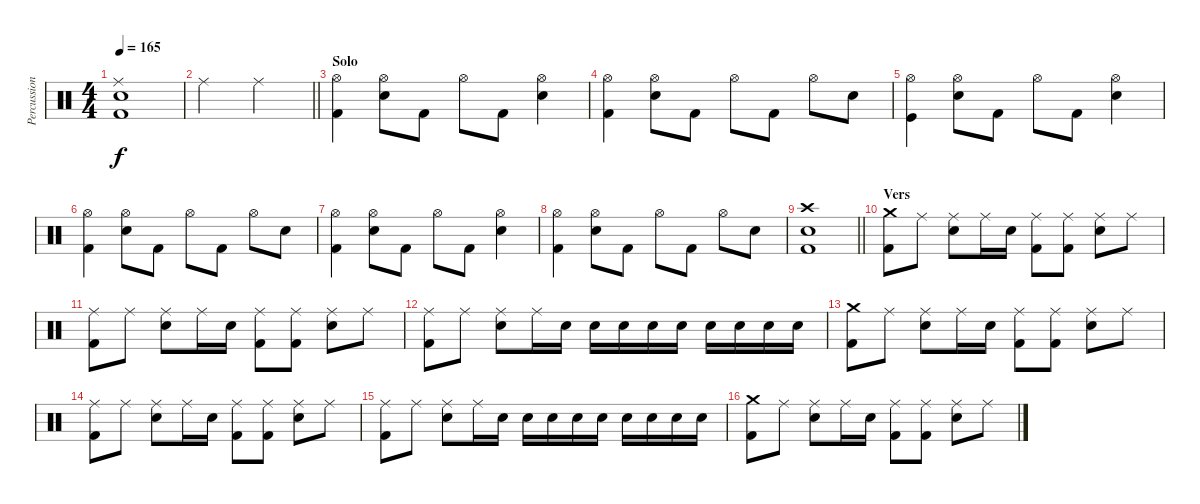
\track ("Percussions" "Percussion") {instrument percussion}
\staff {score}
\articulation defaults
\ts (4 4)
\tempo 165
\clef neutral
\ks c
("Ride (middle)" "Snare (hit) 2" "Kick (hit) 2").1{dy f} |
\barLineRight lightlight "Ride (middle)".2 "Ride (middle)".2
|
\section ("" "Solo")
("Hi-Hat (open)" "Kick (hit) 2").4 ("Hi-Hat (open)" "Snare (hit) 2").8 "Kick (hit) 2".8 "Hi-Hat (open)".8 "Kick (hit) 2".8 ("Hi-Hat (open)" "Snare (hit) 2").4 |
("Hi-Hat (open)" "Kick (hit) 2").4 ("Hi-Hat (open)" "Snare (hit) 2").8 "Kick (hit) 2".8 "Hi-Hat (open)".8 "Kick (hit) 2".8 "Hi-Hat (open)".8 "Snare (hit) 2".8 |
("Hi-Hat (open)" "Kick (hit)").4 ("Hi-Hat (open)" "Snare (hit) 2").8 "Kick (hit) 2".8 "Hi-Hat (open)".8 "Kick (hit) 2".8 ("Hi-Hat (open)" "Snare (hit) 2").4 |
("Hi-Hat (open)" "Kick (hit) 2").4 ("Hi-Hat (open)" "Snare (hit) 2").8 "Kick (hit) 2".8 "Hi-Hat (open)".8 "Kick (hit) 2".8 "Hi-Hat (open)".8 "Snare (hit) 2".8 |
("Hi-Hat (open)" "Kick (hit) 2").4 ("Hi-Hat (open)" "Snare (hit) 2").8 "Kick (hit) 2".8 "Hi-Hat (open)".8 "Kick (hit) 2".8 ("Hi-Hat (open)" "Snare (hit) 2").4 |
("Hi-Hat (open)" "Kick (hit) 2").4 ("Hi-Hat (open)" "Snare (hit) 2").8 "Kick (hit) 2".8 "Hi-Hat (open)".8 "Kick (hit) 2".8 "Hi-Hat (open)".8 "Snare (hit) 2".8 |
\barLineRight lightlight
("Crash high (hit)" "Snare (hit) 2" "Kick (hit) 2").1 |
\section ("" "Vers")
("Crash medium (hit)" "Kick (hit) 2").8 "Ride (middle)".8 ("Ride (middle)" "Snare (hit) 2").8 "Ride (middle)".16 "Snare (hit) 2".16 ("Ride (middle)" "Kick (hit) 2").8 ("Ride (middle)" "Kick (hit) 2").8 ("Ride (middle)" "Snare (hit) 2").8 "Ride (middle)".8 |
("Ride (middle)" "Kick (hit) 2").8 "Ride (middle)".8 ("Ride (middle)" "Snare (hit) 2").8 "Ride (middle)".16 "Snare (hit) 2".16 ("Ride (middle)" "Kick (hit) 2").8 ("Ride (middle)" "Kick (hit) 2").8 ("Ride (middle)" "Snare (hit) 2").8 "Ride (middle)".8 |
("Ride (middle)" "Kick (hit) 2").8 "Ride (middle)".8 ("Ride (middle)" "Snare (hit) 2").8 "Ride (middle)".16 "Snare (hit) 2".16 "Snare (hit) 2".16 "Snare (hit) 2".16 "Snare (hit) 2".16 "Snare (hit) 2".16 "Snare (hit) 2".16 "Snare (hit) 2".16 "Snare (hit) 2".16 "Snare (hit) 2".16 |
("Crash medium (hit)" "Kick (hit) 2").8 "Ride (middle)".8 ("Ride (middle)" "Snare (hit) 2").8 "Ride (middle)".16 "Snare (hit) 2".16 ("Ride (middle)" "Kick (hit) 2").8 ("Ride (middle)" "Kick (hit) 2").8 ("Ride (middle)" "Snare (hit) 2").8 "Ride (middle)".8 |
("Ride (middle)" "Kick (hit) 2").8 "Ride (middle)".8 ("Ride (middle)" "Snare (hit) 2").8 "Ride (middle)".16 "Snare (hit) 2".16 ("Ride (middle)" "Kick (hit) 2").8 ("Ride (middle)" "Kick (hit) 2").8 ("Ride (middle)" "Snare (hit) 2").8 "Ride (middle)".8 |
("Ride (middle)" "Kick (hit) 2").8 "Ride (middle)".8 ("Ride (middle)" "Snare (hit) 2").8 "Ride (middle)".16 "Snare (hit) 2".16 "Snare (hit) 2".16 "Snare (hit) 2".16 "Snare (hit) 2".16 "Snare (hit) 2".16 "Snare (hit) 2".16 "Snare (hit) 2".16 "Snare (hit) 2".16 "Snare (hit) 2".16 |
("Crash medium (hit)" "Kick (hit) 2").8 "Ride (middle)".8 ("Ride (middle)" "Snare (hit) 2").8 "Ride (middle)".16 "Snare (hit) 2".16 ("Ride (middle)" "Kick (hit) 2").8 ("Ride (middle)" "Kick (hit) 2").8 ("Ride (middle)" "Snare (hit) 2").8 "Ride (middle)".8
